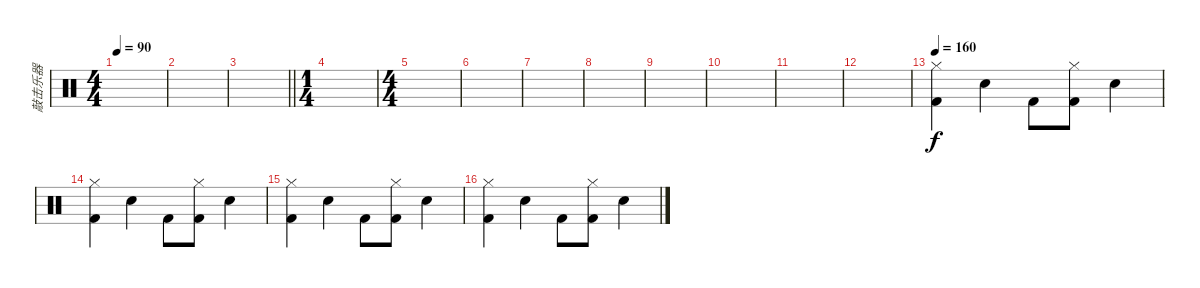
\track ("敲击乐器" "敲击乐器") {instrument percussion}
\staff {score}
\articulation defaults
\ts (4 4)
\tempo 90
\clef neutral
\ks c
|
|
\barLineRight lightlight
|
\ts (1 4)
|
\ts (4 4)
|
|
|
|
|
|
|
|
\tempo 160
("Hi-Hat (closed)" "Kick (hit) 2").4 "Electric Snare (hit)".4 "Kick (hit) 2".8 ("Hi-Hat (closed)" "Kick (hit) 2").8 "Electric Snare (hit)".4 |
("Hi-Hat (closed)" "Kick (hit) 2").4 "Electric Snare (hit)".4 "Kick (hit) 2".8 ("Hi-Hat (closed)" "Kick (hit) 2").8 "Electric Snare (hit)".4 |
("Hi-Hat (closed)" "Kick (hit) 2").4 "Electric Snare (hit)".4 "Kick (hit) 2".8 ("Hi-Hat (closed)" "Kick (hit) 2").8 "Electric Snare (hit)".4 |
("Hi-Hat (closed)" "Kick (hit) 2").4 "Electric Snare (hit)".4 "Kick (hit) 2".8 ("Hi-Hat (closed)" "Kick (hit) 2").8 "Electric Snare (hit)".4
